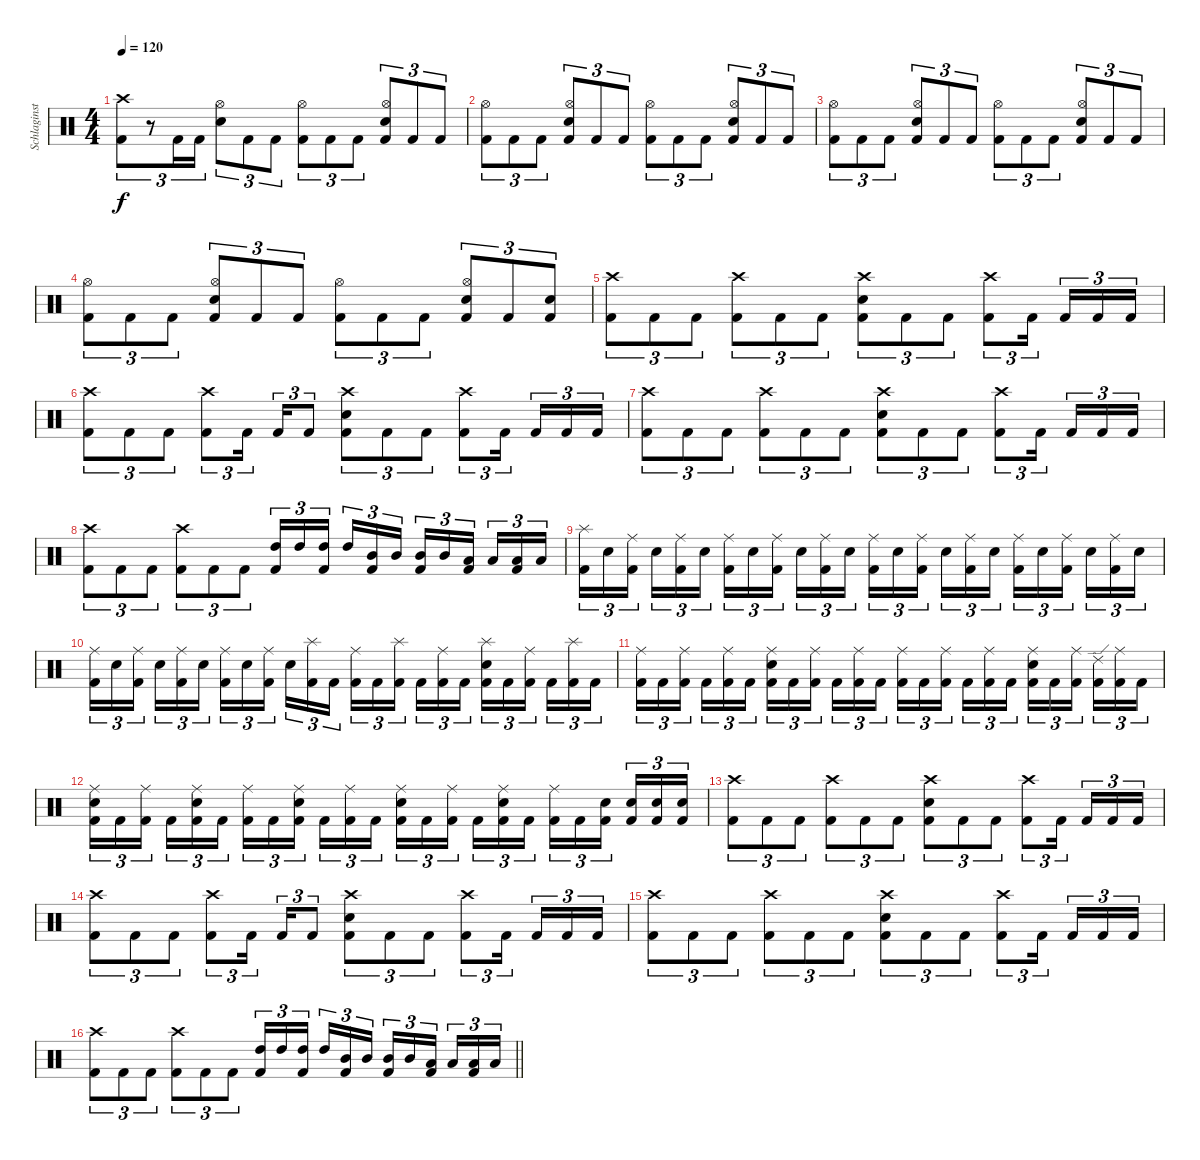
\track ("Schlaginstrumente - Auswahl" "Schlaginst") {instrument percussion}
\staff {score}
\articulation defaults
\ts (4 4)
\tempo 120
\clef neutral
\ks c
("Crash high (hit)" "Kick (hit) 2").8{tu (3 2) dy f} r.8{tu (3 2)} "Kick (hit) 2".16{tu (3 2)} "Kick (hit) 2".16{tu (3 2)} ("Hi-Hat (open)" "Electric Snare (hit)").8{tu (3 2)} "Kick (hit) 2".8{tu (3 2)} "Kick (hit) 2".8{tu (3 2)} ("Hi-Hat (open)" "Kick (hit) 2").8{tu (3 2)} "Kick (hit) 2".8{tu (3 2)} "Kick (hit) 2".8{tu (3 2)} ("Hi-Hat (open)" "Electric Snare (hit)" "Kick (hit) 2").8{tu (3 2)} "Kick (hit) 2".8{tu (3 2)} "Kick (hit) 2".8{tu (3 2)} |
("Hi-Hat (open)" "Kick (hit) 2").8{tu (3 2)} "Kick (hit) 2".8{tu (3 2)} "Kick (hit) 2".8{tu (3 2)} ("Hi-Hat (open)" "Electric Snare (hit)" "Kick (hit) 2").8{tu (3 2)} "Kick (hit) 2".8{tu (3 2)} "Kick (hit) 2".8{tu (3 2)} ("Hi-Hat (open)" "Kick (hit) 2").8{tu (3 2)} "Kick (hit) 2".8{tu (3 2)} "Kick (hit) 2".8{tu (3 2)} ("Hi-Hat (open)" "Electric Snare (hit)" "Kick (hit) 2").8{tu (3 2)} "Kick (hit) 2".8{tu (3 2)} "Kick (hit) 2".8{tu (3 2)} |
("Hi-Hat (open)" "Kick (hit) 2").8{tu (3 2)} "Kick (hit) 2".8{tu (3 2)} "Kick (hit) 2".8{tu (3 2)} ("Hi-Hat (open)" "Electric Snare (hit)" "Kick (hit) 2").8{tu (3 2)} "Kick (hit) 2".8{tu (3 2)} "Kick (hit) 2".8{tu (3 2)} ("Hi-Hat (open)" "Kick (hit) 2").8{tu (3 2)} "Kick (hit) 2".8{tu (3 2)} "Kick (hit) 2".8{tu (3 2)} ("Hi-Hat (open)" "Electric Snare (hit)" "Kick (hit) 2").8{tu (3 2)} "Kick (hit) 2".8{tu (3 2)} "Kick (hit) 2".8{tu (3 2)} |
("Hi-Hat (open)" "Kick (hit) 2").8{tu (3 2)} "Kick (hit) 2".8{tu (3 2)} "Kick (hit) 2".8{tu (3 2)} ("Hi-Hat (open)" "Electric Snare (hit)" "Kick (hit) 2").8{tu (3 2)} "Kick (hit) 2".8{tu (3 2)} "Kick (hit) 2".8{tu (3 2)} ("Hi-Hat (open)" "Kick (hit) 2").8{tu (3 2)} "Kick (hit) 2".8{tu (3 2)} "Kick (hit) 2".8{tu (3 2)} ("Hi-Hat (open)" "Electric Snare (hit)" "Kick (hit) 2").8{tu (3 2)} "Kick (hit) 2".8{tu (3 2)} ("Electric Snare (hit)" "Kick (hit) 2").8{tu (3 2)} |
("Crash high (hit)" "Kick (hit) 2").8{tu (3 2)} "Kick (hit) 2".8{tu (3 2)} "Kick (hit) 2".8{tu (3 2)} ("Crash high (hit)" "Kick (hit) 2").8{tu (3 2)} "Kick (hit) 2".8{tu (3 2)} "Kick (hit) 2".8{tu (3 2)} ("Crash high (hit)" "Electric Snare (hit)" "Kick (hit) 2").8{tu (3 2)} "Kick (hit) 2".8{tu (3 2)} "Kick (hit) 2".8{tu (3 2)} ("Crash high (hit)" "Kick (hit) 2").8{tu (3 2)} "Kick (hit) 2".16{tu (3 2) beam splitsecondary} "Kick (hit) 2".16{tu (3 2)} "Kick (hit) 2".16{tu (3 2)} "Kick (hit) 2".16{tu (3 2)} |
("Crash high (hit)" "Kick (hit) 2").8{tu (3 2)} "Kick (hit) 2".8{tu (3 2)} "Kick (hit) 2".8{tu (3 2)} ("Crash high (hit)" "Kick (hit) 2").8{tu (3 2)} "Kick (hit) 2".16{tu (3 2) beam splitsecondary} "Kick (hit) 2".16{tu (3 2)} "Kick (hit) 2".8{tu (3 2)} ("Crash high (hit)" "Electric Snare (hit)" "Kick (hit) 2").8{tu (3 2)} "Kick (hit) 2".8{tu (3 2)} "Kick (hit) 2".8{tu (3 2)} ("Crash high (hit)" "Kick (hit) 2").8{tu (3 2)} "Kick (hit) 2".16{tu (3 2) beam splitsecondary} "Kick (hit) 2".16{tu (3 2)} "Kick (hit) 2".16{tu (3 2)} "Kick (hit) 2".16{tu (3 2)} |
("Crash high (hit)" "Kick (hit) 2").8{tu (3 2)} "Kick (hit) 2".8{tu (3 2)} "Kick (hit) 2".8{tu (3 2)} ("Crash high (hit)" "Kick (hit) 2").8{tu (3 2)} "Kick (hit) 2".8{tu (3 2)} "Kick (hit) 2".8{tu (3 2)} ("Crash high (hit)" "Electric Snare (hit)" "Kick (hit) 2").8{tu (3 2)} "Kick (hit) 2".8{tu (3 2)} "Kick (hit) 2".8{tu (3 2)} ("Crash high (hit)" "Kick (hit) 2").8{tu (3 2)} "Kick (hit) 2".16{tu (3 2) beam splitsecondary} "Kick (hit) 2".16{tu (3 2)} "Kick (hit) 2".16{tu (3 2)} "Kick (hit) 2".16{tu (3 2)} |
("Crash high (hit)" "Kick (hit) 2").8{tu (3 2)} "Kick (hit) 2".8{tu (3 2)} "Kick (hit) 2".8{tu (3 2)} ("Crash high (hit)" "Kick (hit) 2").8{tu (3 2)} "Kick (hit) 2".8{tu (3 2)} "Kick (hit) 2".8{tu (3 2)} ("High Tom (hit)" "Kick (hit) 2").16{tu (3 2)} "High Tom (hit)".16{tu (3 2)} ("High Tom (hit)" "Kick (hit) 2").16{tu (3 2) beam splitsecondary} "High Tom (hit)".16{tu (3 2)} ("Mid Tom (hit)" "Kick (hit) 2").16{tu (3 2)} "Mid Tom (hit)".16{tu (3 2)} ("Mid Tom (hit)" "Kick (hit) 2").16{tu (3 2)} "Mid Tom (hit)".16{tu (3 2)} ("Low Tom (hit)" "Kick (hit) 2").16{tu (3 2) beam splitsecondary} "Low Tom (hit)".16{tu (3 2)} ("Low Tom (hit)" "Kick (hit) 2").16{tu (3 2)} "Low Tom (hit)".16{tu (3 2)} |
("Splash (hit)" "Kick (hit) 2").16{tu (3 2)} "Electric Snare (hit)".16{tu (3 2)} ("Ride (middle)" "Kick (hit) 2").16{tu (3 2) beam splitsecondary} "Electric Snare (hit)".16{tu (3 2)} ("Ride (middle)" "Kick (hit) 2").16{tu (3 2)} "Electric Snare (hit)".16{tu (3 2)} ("Ride (middle)" "Kick (hit) 2").16{tu (3 2)} "Electric Snare (hit)".16{tu (3 2)} ("Ride (middle)" "Kick (hit) 2").16{tu (3 2) beam splitsecondary} "Electric Snare (hit)".16{tu (3 2)} ("Ride (middle)" "Kick (hit) 2").16{tu (3 2)} "Electric Snare (hit)".16{tu (3 2)} ("Ride (middle)" "Kick (hit) 2").16{tu (3 2)} "Electric Snare (hit)".16{tu (3 2)} ("Ride (middle)" "Kick (hit) 2").16{tu (3 2) beam splitsecondary} "Electric Snare (hit)".16{tu (3 2)} ("Ride (middle)" "Kick (hit) 2").16{tu (3 2)} "Electric Snare (hit)".16{tu (3 2)} ("Ride (middle)" "Kick (hit) 2").16{tu (3 2)} "Electric Snare (hit)".16{tu (3 2)} ("Ride (middle)" "Kick (hit) 2").16{tu (3 2) beam splitsecondary} "Electric Snare (hit)".16{tu (3 2)} ("Ride (middle)" "Kick (hit) 2").16{tu (3 2)} "Electric Snare (hit)".16{tu (3 2)} |
("Ride (middle)" "Kick (hit) 2").16{tu (3 2)} "Electric Snare (hit)".16{tu (3 2)} ("Ride (middle)" "Kick (hit) 2").16{tu (3 2) beam splitsecondary} "Electric Snare (hit)".16{tu (3 2)} ("Ride (middle)" "Kick (hit) 2").16{tu (3 2)} "Electric Snare (hit)".16{tu (3 2)} ("Ride (middle)" "Kick (hit) 2").16{tu (3 2)} "Electric Snare (hit)".16{tu (3 2)} ("Ride (middle)" "Kick (hit) 2").16{tu (3 2) beam splitsecondary} "Electric Snare (hit)".16{tu (3 2)} ("Splash (hit)" "Kick (hit) 2").16{tu (3 2)} "Kick (hit) 2".16{tu (3 2)} ("Ride (middle)" "Kick (hit) 2").16{tu (3 2)} "Kick (hit) 2".16{tu (3 2)} ("Splash (hit)" "Kick (hit) 2").16{tu (3 2) beam splitsecondary} "Kick (hit) 2".16{tu (3 2)} ("Ride (middle)" "Kick (hit) 2").16{tu (3 2)} "Kick (hit) 2".16{tu (3 2)} ("Splash (hit)" "Electric Snare (hit)" "Kick (hit) 2").16{tu (3 2)} "Kick (hit) 2".16{tu (3 2)} ("Ride (middle)" "Kick (hit) 2").16{tu (3 2) beam splitsecondary} "Kick (hit) 2".16{tu (3 2)} ("Splash (hit)" "Kick (hit) 2").16{tu (3 2)} "Kick (hit) 2".16{tu (3 2)} |
("Ride (middle)" "Kick (hit) 2").16{tu (3 2)} "Kick (hit) 2".16{tu (3 2)} ("Ride (middle)" "Kick (hit) 2").16{tu (3 2) beam splitsecondary} "Kick (hit) 2".16{tu (3 2)} ("Ride (middle)" "Kick (hit) 2").16{tu (3 2)} "Kick (hit) 2".16{tu (3 2)} ("Ride (middle)" "Electric Snare (hit)" "Kick (hit) 2").16{tu (3 2)} "Kick (hit) 2".16{tu (3 2)} ("Ride (middle)" "Kick (hit) 2").16{tu (3 2) beam splitsecondary} "Kick (hit) 2".16{tu (3 2)} ("Ride (middle)" "Kick (hit) 2").16{tu (3 2)} "Kick (hit) 2".16{tu (3 2)} ("Ride (middle)" "Kick (hit) 2").16{tu (3 2)} "Kick (hit) 2".16{tu (3 2)} ("Ride (middle)" "Kick (hit) 2").16{tu (3 2) beam splitsecondary} "Kick (hit) 2".16{tu (3 2)} ("Ride (middle)" "Kick (hit) 2").16{tu (3 2)} "Kick (hit) 2".16{tu (3 2)} ("Ride (middle)" "Electric Snare (hit)" "Kick (hit) 2").16{tu (3 2)} "Kick (hit) 2".16{tu (3 2)} ("Ride (middle)" "Kick (hit) 2").16{tu (3 2) beam splitsecondary} ("Ride (edge) 2" "Kick (hit) 2").16{tu (3 2)} ("Ride (middle)" "Kick (hit) 2").16{tu (3 2)} "Kick (hit) 2".16{tu (3 2)} |
("Ride (middle)" "Electric Snare (hit)" "Kick (hit) 2").16{tu (3 2)} "Kick (hit) 2".16{tu (3 2)} ("Ride (middle)" "Kick (hit) 2").16{tu (3 2) beam splitsecondary} "Kick (hit) 2".16{tu (3 2)} ("Ride (middle)" "Electric Snare (hit)" "Kick (hit) 2").16{tu (3 2)} "Kick (hit) 2".16{tu (3 2)} ("Ride (middle)" "Kick (hit) 2").16{tu (3 2)} "Kick (hit) 2".16{tu (3 2)} ("Ride (middle)" "Electric Snare (hit)" "Kick (hit) 2").16{tu (3 2) beam splitsecondary} "Kick (hit) 2".16{tu (3 2)} ("Ride (middle)" "Kick (hit) 2").16{tu (3 2)} "Kick (hit) 2".16{tu (3 2)} ("Ride (middle)" "Electric Snare (hit)" "Kick (hit) 2").16{tu (3 2)} "Kick (hit) 2".16{tu (3 2)} ("Ride (middle)" "Kick (hit) 2").16{tu (3 2) beam splitsecondary} "Kick (hit) 2".16{tu (3 2)} ("Ride (middle)" "Electric Snare (hit)" "Kick (hit) 2").16{tu (3 2)} "Kick (hit) 2".16{tu (3 2)} ("Ride (middle)" "Kick (hit) 2").16{tu (3 2)} "Kick (hit) 2".16{tu (3 2)} ("Electric Snare (hit)" "Kick (hit) 2").16{tu (3 2) beam splitsecondary} ("Electric Snare (hit)" "Kick (hit) 2").16{tu (3 2)} ("Electric Snare (hit)" "Kick (hit) 2").16{tu (3 2)} ("Electric Snare (hit)" "Kick (hit) 2").16{tu (3 2)} |
("Crash high (hit)" "Kick (hit) 2").8{tu (3 2)} "Kick (hit) 2".8{tu (3 2)} "Kick (hit) 2".8{tu (3 2)} ("Crash high (hit)" "Kick (hit) 2").8{tu (3 2)} "Kick (hit) 2".8{tu (3 2)} "Kick (hit) 2".8{tu (3 2)} ("Crash high (hit)" "Electric Snare (hit)" "Kick (hit) 2").8{tu (3 2)} "Kick (hit) 2".8{tu (3 2)} "Kick (hit) 2".8{tu (3 2)} ("Crash high (hit)" "Kick (hit) 2").8{tu (3 2)} "Kick (hit) 2".16{tu (3 2) beam splitsecondary} "Kick (hit) 2".16{tu (3 2)} "Kick (hit) 2".16{tu (3 2)} "Kick (hit) 2".16{tu (3 2)} |
("Crash high (hit)" "Kick (hit) 2").8{tu (3 2)} "Kick (hit) 2".8{tu (3 2)} "Kick (hit) 2".8{tu (3 2)} ("Crash high (hit)" "Kick (hit) 2").8{tu (3 2)} "Kick (hit) 2".16{tu (3 2) beam splitsecondary} "Kick (hit) 2".16{tu (3 2)} "Kick (hit) 2".8{tu (3 2)} ("Crash high (hit)" "Electric Snare (hit)" "Kick (hit) 2").8{tu (3 2)} "Kick (hit) 2".8{tu (3 2)} "Kick (hit) 2".8{tu (3 2)} ("Crash high (hit)" "Kick (hit) 2").8{tu (3 2)} "Kick (hit) 2".16{tu (3 2) beam splitsecondary} "Kick (hit) 2".16{tu (3 2)} "Kick (hit) 2".16{tu (3 2)} "Kick (hit) 2".16{tu (3 2)} |
("Crash high (hit)" "Kick (hit) 2").8{tu (3 2)} "Kick (hit) 2".8{tu (3 2)} "Kick (hit) 2".8{tu (3 2)} ("Crash high (hit)" "Kick (hit) 2").8{tu (3 2)} "Kick (hit) 2".8{tu (3 2)} "Kick (hit) 2".8{tu (3 2)} ("Crash high (hit)" "Electric Snare (hit)" "Kick (hit) 2").8{tu (3 2)} "Kick (hit) 2".8{tu (3 2)} "Kick (hit) 2".8{tu (3 2)} ("Crash high (hit)" "Kick (hit) 2").8{tu (3 2)} "Kick (hit) 2".16{tu (3 2) beam splitsecondary} "Kick (hit) 2".16{tu (3 2)} "Kick (hit) 2".16{tu (3 2)} "Kick (hit) 2".16{tu (3 2)} |
\barLineRight lightlight
("Crash high (hit)" "Kick (hit) 2").8{tu (3 2)} "Kick (hit) 2".8{tu (3 2)} "Kick (hit) 2".8{tu (3 2)} ("Crash high (hit)" "Kick (hit) 2").8{tu (3 2)} "Kick (hit) 2".8{tu (3 2)} "Kick (hit) 2".8{tu (3 2)} ("High Tom (hit)" "Kick (hit) 2").16{tu (3 2)} "High Tom (hit)".16{tu (3 2)} ("High Tom (hit)" "Kick (hit) 2").16{tu (3 2) beam splitsecondary} "High Tom (hit)".16{tu (3 2)} ("Mid Tom (hit)" "Kick (hit) 2").16{tu (3 2)} "Mid Tom (hit)".16{tu (3 2)} ("Mid Tom (hit)" "Kick (hit) 2").16{tu (3 2)} "Mid Tom (hit)".16{tu (3 2)} ("Low Tom (hit)" "Kick (hit) 2").16{tu (3 2) beam splitsecondary} "Low Tom (hit)".16{tu (3 2)} ("Low Tom (hit)" "Kick (hit) 2").16{tu (3 2)} "Low Tom (hit)".16{tu (3 2)}
